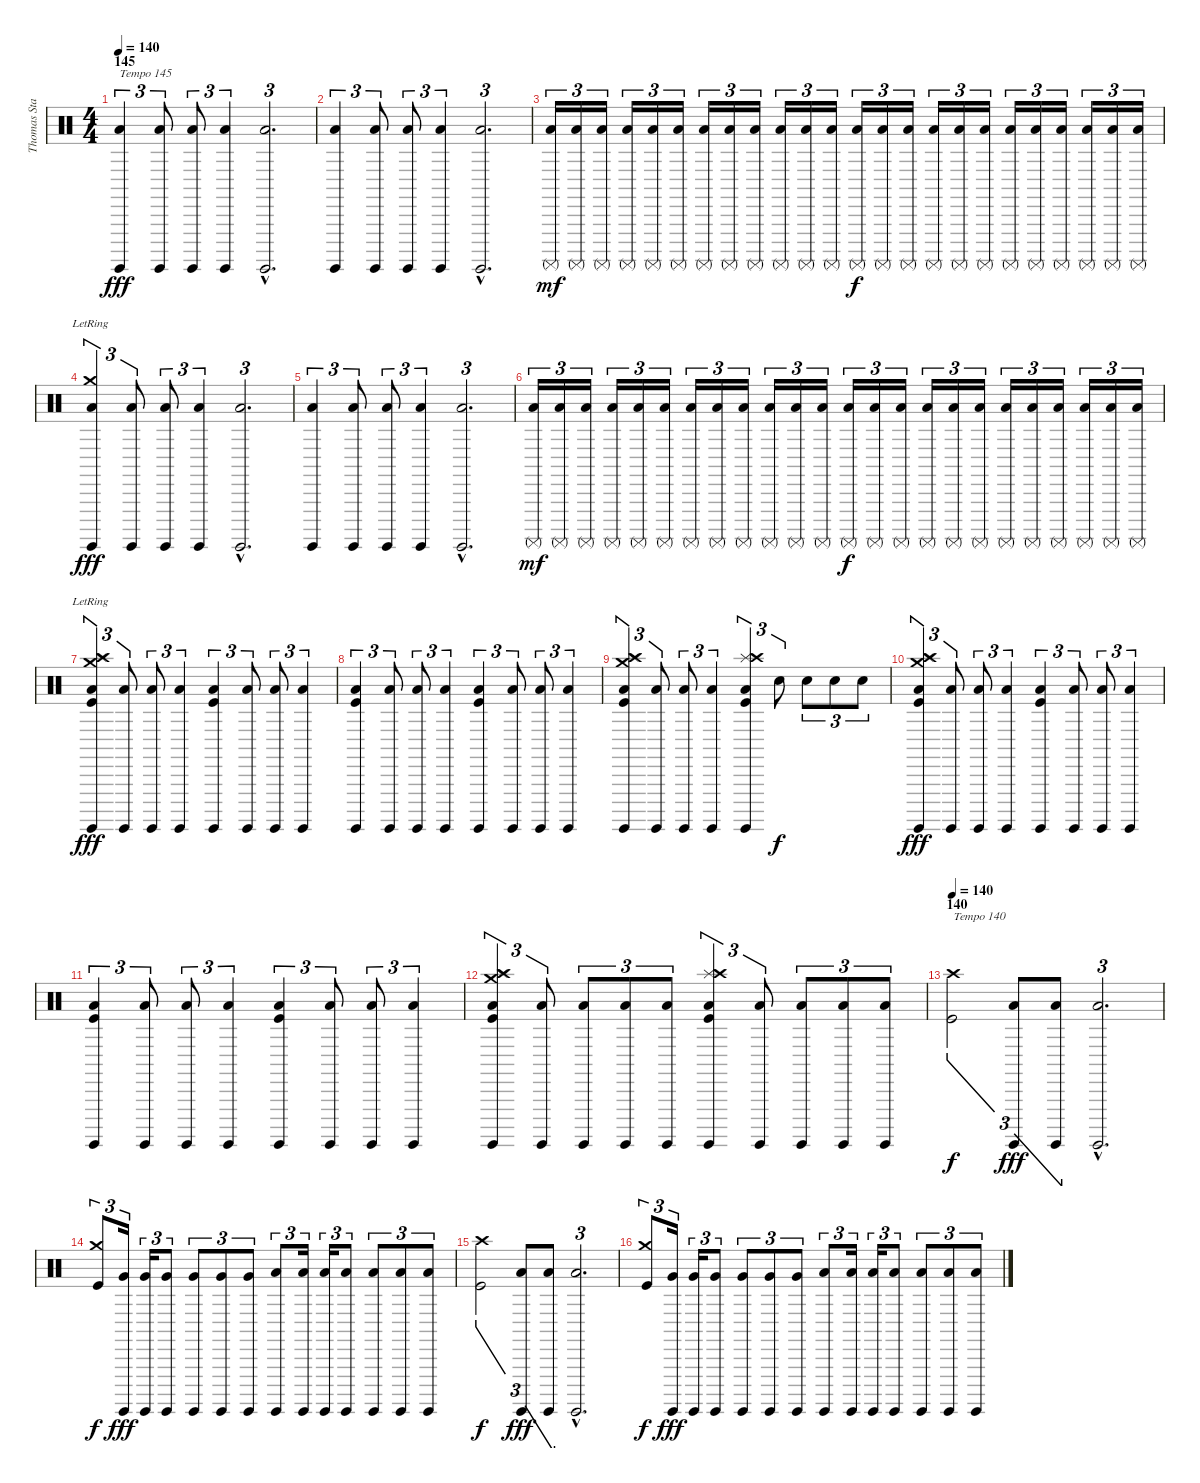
\track ("Thomas Stauch" "Thomas Sta") {instrument percussion}
\staff {score}
\articulation defaults
\ts (4 4)
\section ("" "145")
\tempo 140
\tempo 145
\tempo 140
\clef neutral
\ks c
("Surdo (hit)" "Low Floor Tom (hit)").4{tu (3 2) txt "Tempo 145" dy fff} ("Surdo (hit)" "Low Floor Tom (hit)").8{tu (3 2)} ("Surdo (hit)" "Low Floor Tom (hit)").8{tu (3 2)} ("Surdo (hit)" "Low Floor Tom (hit)").4{tu (3 2)} ("Surdo (hit)"{hac} "Low Floor Tom (hit)"{hac}).2{d tu (3 2)} |
("Surdo (hit)" "Low Floor Tom (hit)").4{tu (3 2)} ("Surdo (hit)" "Low Floor Tom (hit)").8{tu (3 2)} ("Surdo (hit)" "Low Floor Tom (hit)").8{tu (3 2)} ("Surdo (hit)" "Low Floor Tom (hit)").4{tu (3 2)} ("Surdo (hit)"{hac} "Low Floor Tom (hit)"{hac}).2{d tu (3 2)} |
("Surdo (mute)" "Low Floor Tom (hit)").16{tu (3 2) dy mf} ("Surdo (mute)" "Low Floor Tom (hit)").16{tu (3 2)} ("Surdo (mute)" "Low Floor Tom (hit)").16{tu (3 2)} ("Surdo (mute)" "Low Floor Tom (hit)").16{tu (3 2)} ("Surdo (mute)" "Low Floor Tom (hit)").16{tu (3 2)} ("Surdo (mute)" "Low Floor Tom (hit)").16{tu (3 2)} ("Surdo (mute)" "Low Floor Tom (hit)").16{tu (3 2)} ("Surdo (mute)" "Low Floor Tom (hit)").16{tu (3 2)} ("Surdo (mute)" "Low Floor Tom (hit)").16{tu (3 2)} ("Surdo (mute)" "Low Floor Tom (hit)").16{tu (3 2)} ("Surdo (mute)" "Low Floor Tom (hit)").16{tu (3 2)} ("Surdo (mute)" "Low Floor Tom (hit)").16{tu (3 2)} ("Surdo (mute)" "Low Floor Tom (hit)").16{tu (3 2) dy f} ("Surdo (mute)" "Low Floor Tom (hit)").16{tu (3 2)} ("Surdo (mute)" "Low Floor Tom (hit)").16{tu (3 2)} ("Surdo (mute)" "Low Floor Tom (hit)").16{tu (3 2)} ("Surdo (mute)" "Low Floor Tom (hit)").16{tu (3 2)} ("Surdo (mute)" "Low Floor Tom (hit)").16{tu (3 2)} ("Surdo (mute)" "Low Floor Tom (hit)").16{tu (3 2)} ("Surdo (mute)" "Low Floor Tom (hit)").16{tu (3 2)} ("Surdo (mute)" "Low Floor Tom (hit)").16{tu (3 2)} ("Surdo (mute)" "Low Floor Tom (hit)").16{tu (3 2)} ("Surdo (mute)" "Low Floor Tom (hit)").16{tu (3 2)} ("Surdo (mute)" "Low Floor Tom (hit)").16{tu (3 2)} |
("Crash medium (hit)"{lr} "Surdo (hit)" "Low Floor Tom (hit)").4{tu (3 2) dy fff} ("Surdo (hit)" "Low Floor Tom (hit)").8{tu (3 2)} ("Surdo (hit)" "Low Floor Tom (hit)").8{tu (3 2)} ("Surdo (hit)" "Low Floor Tom (hit)").4{tu (3 2)} ("Surdo (hit)"{hac} "Low Floor Tom (hit)"{hac}).2{d tu (3 2)} |
("Surdo (hit)" "Low Floor Tom (hit)").4{tu (3 2)} ("Surdo (hit)" "Low Floor Tom (hit)").8{tu (3 2)} ("Surdo (hit)" "Low Floor Tom (hit)").8{tu (3 2)} ("Surdo (hit)" "Low Floor Tom (hit)").4{tu (3 2)} ("Surdo (hit)"{hac} "Low Floor Tom (hit)"{hac}).2{d tu (3 2)} |
("Surdo (mute)" "Low Floor Tom (hit)").16{tu (3 2) dy mf} ("Surdo (mute)" "Low Floor Tom (hit)").16{tu (3 2)} ("Surdo (mute)" "Low Floor Tom (hit)").16{tu (3 2)} ("Surdo (mute)" "Low Floor Tom (hit)").16{tu (3 2)} ("Surdo (mute)" "Low Floor Tom (hit)").16{tu (3 2)} ("Surdo (mute)" "Low Floor Tom (hit)").16{tu (3 2)} ("Surdo (mute)" "Low Floor Tom (hit)").16{tu (3 2)} ("Surdo (mute)" "Low Floor Tom (hit)").16{tu (3 2)} ("Surdo (mute)" "Low Floor Tom (hit)").16{tu (3 2)} ("Surdo (mute)" "Low Floor Tom (hit)").16{tu (3 2)} ("Surdo (mute)" "Low Floor Tom (hit)").16{tu (3 2)} ("Surdo (mute)" "Low Floor Tom (hit)").16{tu (3 2)} ("Surdo (mute)" "Low Floor Tom (hit)").16{tu (3 2) dy f} ("Surdo (mute)" "Low Floor Tom (hit)").16{tu (3 2)} ("Surdo (mute)" "Low Floor Tom (hit)").16{tu (3 2)} ("Surdo (mute)" "Low Floor Tom (hit)").16{tu (3 2)} ("Surdo (mute)" "Low Floor Tom (hit)").16{tu (3 2)} ("Surdo (mute)" "Low Floor Tom (hit)").16{tu (3 2)} ("Surdo (mute)" "Low Floor Tom (hit)").16{tu (3 2)} ("Surdo (mute)" "Low Floor Tom (hit)").16{tu (3 2)} ("Surdo (mute)" "Low Floor Tom (hit)").16{tu (3 2)} ("Surdo (mute)" "Low Floor Tom (hit)").16{tu (3 2)} ("Surdo (mute)" "Low Floor Tom (hit)").16{tu (3 2)} ("Surdo (mute)" "Low Floor Tom (hit)").16{tu (3 2)} |
("Crash medium (hit)"{lr} "Splash (hit)"{lr} "Crash high (hit)"{lr} "Surdo (hit)" "Low Floor Tom (hit)" "Kick (hit)").4{tu (3 2) dy fff} ("Surdo (hit)" "Low Floor Tom (hit)").8{tu (3 2)} ("Surdo (hit)" "Low Floor Tom (hit)").8{tu (3 2)} ("Surdo (hit)" "Low Floor Tom (hit)").4{tu (3 2)} ("Surdo (hit)" "Low Floor Tom (hit)" "Kick (hit)").4{tu (3 2)} ("Surdo (hit)" "Low Floor Tom (hit)").8{tu (3 2)} ("Surdo (hit)" "Low Floor Tom (hit)").8{tu (3 2)} ("Surdo (hit)" "Low Floor Tom (hit)").4{tu (3 2)} |
("Surdo (hit)" "Low Floor Tom (hit)" "Kick (hit)").4{tu (3 2)} ("Surdo (hit)" "Low Floor Tom (hit)").8{tu (3 2)} ("Surdo (hit)" "Low Floor Tom (hit)").8{tu (3 2)} ("Surdo (hit)" "Low Floor Tom (hit)").4{tu (3 2)} ("Surdo (hit)" "Low Floor Tom (hit)" "Kick (hit)").4{tu (3 2)} ("Surdo (hit)" "Low Floor Tom (hit)").8{tu (3 2)} ("Surdo (hit)" "Low Floor Tom (hit)").8{tu (3 2)} ("Surdo (hit)" "Low Floor Tom (hit)").4{tu (3 2)} |
("Crash medium (hit)" "Splash (hit)" "Crash high (hit)" "Surdo (hit)" "Low Floor Tom (hit)" "Kick (hit)").4{tu (3 2)} ("Surdo (hit)" "Low Floor Tom (hit)").8{tu (3 2)} ("Surdo (hit)" "Low Floor Tom (hit)").8{tu (3 2)} ("Surdo (hit)" "Low Floor Tom (hit)").4{tu (3 2)} ("Splash (hit)" "Crash high (hit)" "Surdo (hit)" "Low Floor Tom (hit)" "Kick (hit)").4{tu (3 2)} "Electric Snare (hit)".8{tu (3 2) dy f} "Electric Snare (hit)".8{tu (3 2)} "Electric Snare (hit)".8{tu (3 2)} "Electric Snare (hit)".8{tu (3 2)} |
("Crash medium (hit)" "Splash (hit)" "Crash high (hit)" "Surdo (hit)" "Low Floor Tom (hit)" "Kick (hit)").4{tu (3 2) dy fff} ("Surdo (hit)" "Low Floor Tom (hit)").8{tu (3 2)} ("Surdo (hit)" "Low Floor Tom (hit)").8{tu (3 2)} ("Surdo (hit)" "Low Floor Tom (hit)").4{tu (3 2)} ("Surdo (hit)" "Low Floor Tom (hit)" "Kick (hit)").4{tu (3 2)} ("Surdo (hit)" "Low Floor Tom (hit)").8{tu (3 2)} ("Surdo (hit)" "Low Floor Tom (hit)").8{tu (3 2)} ("Surdo (hit)" "Low Floor Tom (hit)").4{tu (3 2)} |
("Surdo (hit)" "Low Floor Tom (hit)" "Kick (hit)").4{tu (3 2)} ("Surdo (hit)" "Low Floor Tom (hit)").8{tu (3 2)} ("Surdo (hit)" "Low Floor Tom (hit)").8{tu (3 2)} ("Surdo (hit)" "Low Floor Tom (hit)").4{tu (3 2)} ("Surdo (hit)" "Low Floor Tom (hit)" "Kick (hit)").4{tu (3 2)} ("Surdo (hit)" "Low Floor Tom (hit)").8{tu (3 2)} ("Surdo (hit)" "Low Floor Tom (hit)").8{tu (3 2)} ("Surdo (hit)" "Low Floor Tom (hit)").4{tu (3 2)} |
("Crash medium (hit)" "Splash (hit)" "Crash high (hit)" "Surdo (hit)" "Low Floor Tom (hit)" "Kick (hit)").4{tu (3 2)} ("Surdo (hit)" "Low Floor Tom (hit)").8{tu (3 2)} ("Surdo (hit)" "Low Floor Tom (hit)").8{tu (3 2)} ("Surdo (hit)" "Low Floor Tom (hit)").8{tu (3 2)} ("Surdo (hit)" "Low Floor Tom (hit)").8{tu (3 2)} ("Splash (hit)" "Crash high (hit)" "Surdo (hit)" "Low Floor Tom (hit)" "Kick (hit)").4{tu (3 2)} ("Surdo (hit)" "Low Floor Tom (hit)").8{tu (3 2)} ("Surdo (hit)" "Low Floor Tom (hit)").8{tu (3 2)} ("Surdo (hit)" "Low Floor Tom (hit)").8{tu (3 2)} ("Surdo (hit)" "Low Floor Tom (hit)").8{tu (3 2)} |
\section ("" "140")
\tempo 140
("Crash high (hit)" "Kick (hit)").2{tu (3 2) txt "Tempo 140" dy f} ("Surdo (hit)" "Low Floor Tom (hit)").8{tu (3 2) dy fff} ("Surdo (hit)" "Low Floor Tom (hit)").8{tu (3 2)} ("Surdo (hit)"{hac} "Low Floor Tom (hit)"{hac}).2{d tu (3 2)} |
("Crash medium (hit)" "Kick (hit)").8{tu (3 2) dy f} ("Surdo (hit)" "Very Low Tom (hit)").16{tu (3 2) dy fff} ("Surdo (hit)" "Very Low Tom (hit)").16{tu (3 2)} ("Surdo (hit)" "Very Low Tom (hit)").8{tu (3 2)} ("Surdo (hit)" "Very Low Tom (hit)").8{tu (3 2)} ("Surdo (hit)" "Very Low Tom (hit)").8{tu (3 2)} ("Surdo (hit)" "Very Low Tom (hit)").8{tu (3 2)} ("Surdo (hit)" "Low Floor Tom (hit)").8{tu (3 2)} ("Surdo (hit)" "Low Floor Tom (hit)").16{tu (3 2)} ("Surdo (hit)" "Low Floor Tom (hit)").16{tu (3 2)} ("Surdo (hit)" "Low Floor Tom (hit)").8{tu (3 2)} ("Surdo (hit)" "Low Floor Tom (hit)").8{tu (3 2)} ("Surdo (hit)" "Low Floor Tom (hit)").8{tu (3 2)} ("Surdo (hit)" "Low Floor Tom (hit)").8{tu (3 2)} |
("Crash high (hit)" "Kick (hit)").2{tu (3 2) dy f} ("Surdo (hit)" "Low Floor Tom (hit)").8{tu (3 2) dy fff} ("Surdo (hit)" "Low Floor Tom (hit)").8{tu (3 2)} ("Surdo (hit)"{hac} "Low Floor Tom (hit)"{hac}).2{d tu (3 2)} |
("Crash medium (hit)" "Kick (hit)").8{tu (3 2) dy f} ("Surdo (hit)" "Very Low Tom (hit)").16{tu (3 2) dy fff} ("Surdo (hit)" "Very Low Tom (hit)").16{tu (3 2)} ("Surdo (hit)" "Very Low Tom (hit)").8{tu (3 2)} ("Surdo (hit)" "Very Low Tom (hit)").8{tu (3 2)} ("Surdo (hit)" "Very Low Tom (hit)").8{tu (3 2)} ("Surdo (hit)" "Very Low Tom (hit)").8{tu (3 2)} ("Surdo (hit)" "Low Floor Tom (hit)").8{tu (3 2)} ("Surdo (hit)" "Low Floor Tom (hit)").16{tu (3 2)} ("Surdo (hit)" "Low Floor Tom (hit)").16{tu (3 2)} ("Surdo (hit)" "Low Floor Tom (hit)").8{tu (3 2)} ("Surdo (hit)" "Low Floor Tom (hit)").8{tu (3 2)} ("Surdo (hit)" "Low Floor Tom (hit)").8{tu (3 2)} ("Surdo (hit)" "Low Floor Tom (hit)").8{tu (3 2)}
